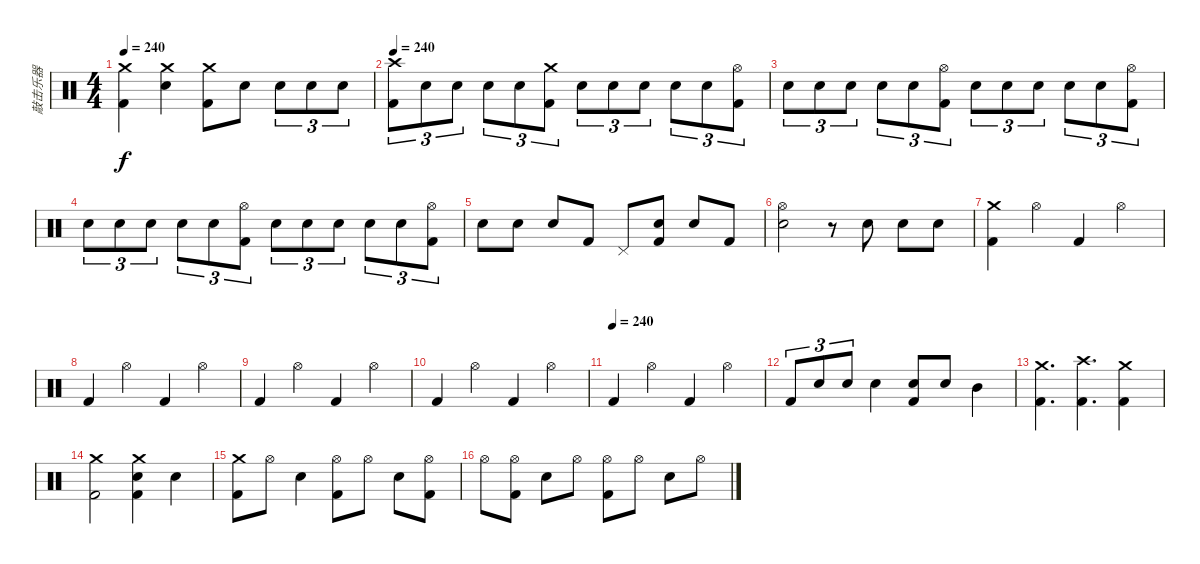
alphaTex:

\track ("敲击乐器" "敲击乐器") {instrument percussion}
\staff {score}
\articulation defaults
\ts (4 4)
\tempo 240
\clef neutral
\ks c
("Crash medium (hit)" "Kick (hit) 2").4{dy f} ("Crash medium (hit)" "Electric Snare (hit)").4 ("Crash medium (hit)" "Kick (hit) 2").8 "Electric Snare (hit)".8 "Electric Snare (hit)".8{tu (3 2)} "Electric Snare (hit)".8{tu (3 2)} "Electric Snare (hit)".8{tu (3 2)} |
\tempo 240
("Crash high (hit)" "Kick (hit) 2").8{tu (3 2)} "Electric Snare (hit)".8{tu (3 2)} "Electric Snare (hit)".8{tu (3 2)} "Electric Snare (hit)".8{tu (3 2)} "Electric Snare (hit)".8{tu (3 2)} ("Crash medium (hit)" "Kick (hit) 2").8{tu (3 2)} "Electric Snare (hit)".8{tu (3 2)} "Electric Snare (hit)".8{tu (3 2)} "Electric Snare (hit)".8{tu (3 2)} "Electric Snare (hit)".8{tu (3 2)} "Electric Snare (hit)".8{tu (3 2)} ("Hi-Hat (open)" "Kick (hit) 2").8{tu (3 2)} |
"Electric Snare (hit)".8{tu (3 2)} "Electric Snare (hit)".8{tu (3 2)} "Electric Snare (hit)".8{tu (3 2)} "Electric Snare (hit)".8{tu (3 2)} "Electric Snare (hit)".8{tu (3 2)} ("Hi-Hat (open)" "Kick (hit) 2").8{tu (3 2)} "Electric Snare (hit)".8{tu (3 2)} "Electric Snare (hit)".8{tu (3 2)} "Electric Snare (hit)".8{tu (3 2)} "Electric Snare (hit)".8{tu (3 2)} "Electric Snare (hit)".8{tu (3 2)} ("Hi-Hat (open)" "Kick (hit) 2").8{tu (3 2)} |
"Electric Snare (hit)".8{tu (3 2)} "Electric Snare (hit)".8{tu (3 2)} "Electric Snare (hit)".8{tu (3 2)} "Electric Snare (hit)".8{tu (3 2)} "Electric Snare (hit)".8{tu (3 2)} ("Hi-Hat (open)" "Kick (hit) 2").8{tu (3 2)} "Electric Snare (hit)".8{tu (3 2)} "Electric Snare (hit)".8{tu (3 2)} "Electric Snare (hit)".8{tu (3 2)} "Electric Snare (hit)".8{tu (3 2)} "Electric Snare (hit)".8{tu (3 2)} ("Hi-Hat (open)" "Kick (hit) 2").8{tu (3 2)} |
"Electric Snare (hit)".8 "Electric Snare (hit)".8 "Electric Snare (hit)".8 "Kick (hit) 2".8 "Pedal Hi-Hat (hit)".8 ("Electric Snare (hit)" "Kick (hit) 2").8 "Electric Snare (hit)".8 "Kick (hit) 2".8 |
("Hi-Hat (open)" "Electric Snare (hit)").2 r.8 "Electric Snare (hit)".8 "Electric Snare (hit)".8 "Electric Snare (hit)".8 |
("Crash medium (hit)" "Kick (hit) 2").4 "Hi-Hat (open)".4 "Kick (hit) 2".4 "Hi-Hat (open)".4 |
"Kick (hit) 2".4 "Hi-Hat (open)".4 "Kick (hit) 2".4 "Hi-Hat (open)".4 |
"Kick (hit) 2".4 "Hi-Hat (open)".4 "Kick (hit) 2".4 "Hi-Hat (open)".4 |
"Kick (hit) 2".4 "Hi-Hat (open)".4 "Kick (hit) 2".4 "Hi-Hat (open)".4 |
\tempo (240)
"Kick (hit) 2".4 "Hi-Hat (open)".4 "Kick (hit) 2".4 "Hi-Hat (open)".4 |
"Kick (hit) 2".8{tu (3 2)} "Electric Snare (hit)".8{tu (3 2)} "Electric Snare (hit)".8{tu (3 2)} "Electric Snare (hit)".4 ("Electric Snare (hit)" "Kick (hit) 2").8 "Electric Snare (hit)".8 "Mid Tom (hit)".4 |
("Crash medium (hit)" "Kick (hit) 2").4{d} ("Crash high (hit)" "Kick (hit) 2").4{d} ("Crash medium (hit)" "Kick (hit) 2").4 |
("Crash medium (hit)" "Kick (hit) 2").2 ("Crash medium (hit)" "Electric Snare (hit)" "Kick (hit) 2").4 "Electric Snare (hit)".4 |
("Crash medium (hit)" "Kick (hit) 2").8 "Hi-Hat (open)".8 "Electric Snare (hit)".4 ("Hi-Hat (open)" "Kick (hit) 2").8 "Hi-Hat (open)".8 "Electric Snare (hit)".8 ("Hi-Hat (open)" "Kick (hit) 2").8 |
"Hi-Hat (open)".8 ("Hi-Hat (open)" "Kick (hit) 2").8 "Electric Snare (hit)".8 "Hi-Hat (open)".8 ("Hi-Hat (open)" "Kick (hit) 2").8 "Hi-Hat (open)".8 "Electric Snare (hit)".8 "Hi-Hat (open)".8
